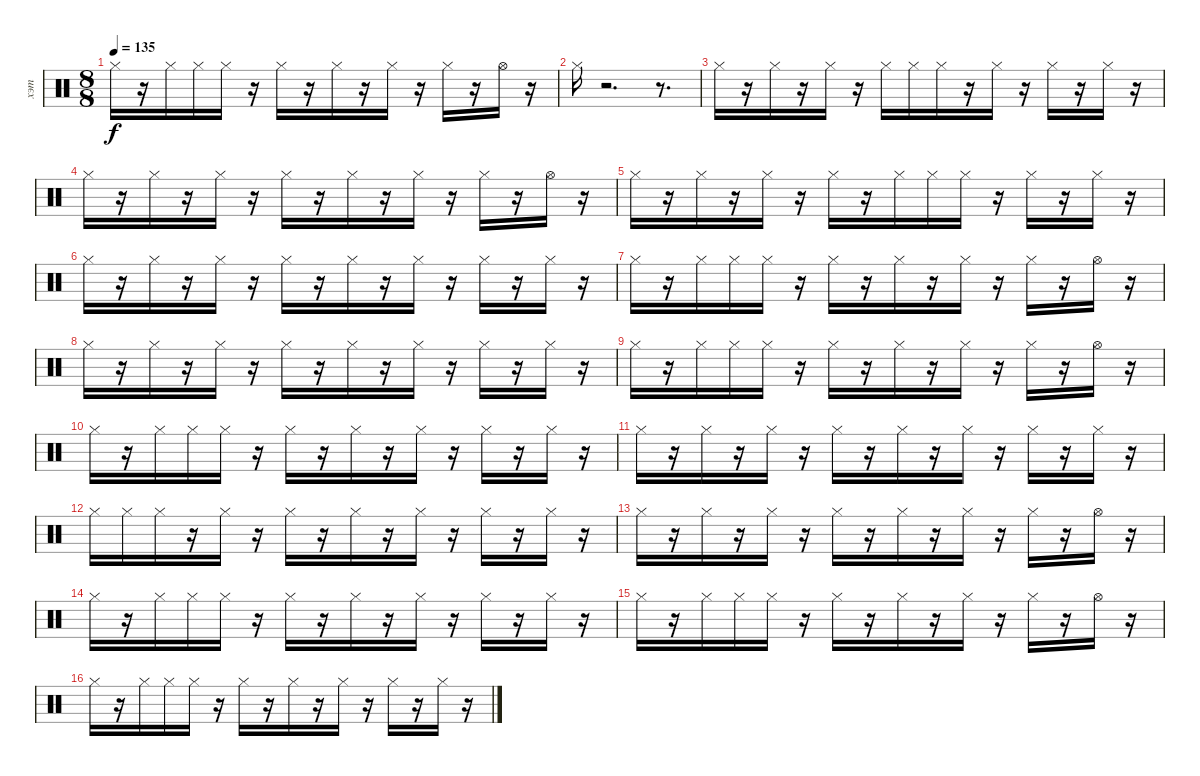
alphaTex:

\track ("хэт" "хэт") {instrument percussion}
\staff {score}
\articulation defaults
\ts (8 8)
\tempo 135
\clef neutral
\ks c "Hi-Hat (closed)".16{dy f}
r.16 "Hi-Hat (closed)".16 "Hi-Hat (closed)".16 "Hi-Hat (closed)".16 r.16 "Hi-Hat (closed)".16 r.16 "Hi-Hat (closed)".16 r.16 "Hi-Hat (closed)".16 r.16 "Hi-Hat (closed)".16 r.16 "Hi-Hat (open)".16 r.16 |
"Hi-Hat (closed)".16 r.2{d} r.8{d} |
"Hi-Hat (closed)".16 r.16 "Hi-Hat (closed)".16 r.16 "Hi-Hat (closed)".16 r.16 "Hi-Hat (closed)".16 "Hi-Hat (closed)".16 "Hi-Hat (closed)".16 r.16 "Hi-Hat (closed)".16 r.16 "Hi-Hat (closed)".16 r.16 "Hi-Hat (closed)".16 r.16 |
"Hi-Hat (closed)".16 r.16 "Hi-Hat (closed)".16 r.16 "Hi-Hat (closed)".16 r.16 "Hi-Hat (closed)".16 r.16 "Hi-Hat (closed)".16 r.16 "Hi-Hat (closed)".16 r.16 "Hi-Hat (closed)".16 r.16 "Hi-Hat (open)".16 r.16 |
"Hi-Hat (closed)".16 r.16 "Hi-Hat (closed)".16 r.16 "Hi-Hat (closed)".16 r.16 "Hi-Hat (closed)".16 r.16 "Hi-Hat (closed)".16 "Hi-Hat (closed)".16 "Hi-Hat (closed)".16 r.16 "Hi-Hat (closed)".16 r.16 "Hi-Hat (closed)".16 r.16 |
"Hi-Hat (closed)".16 r.16 "Hi-Hat (closed)".16 r.16 "Hi-Hat (closed)".16 r.16 "Hi-Hat (closed)".16 r.16 "Hi-Hat (closed)".16 r.16 "Hi-Hat (closed)".16 r.16 "Hi-Hat (closed)".16 r.16 "Hi-Hat (closed)".16 r.16 |
"Hi-Hat (closed)".16 r.16 "Hi-Hat (closed)".16 "Hi-Hat (closed)".16 "Hi-Hat (closed)".16 r.16 "Hi-Hat (closed)".16 r.16 "Hi-Hat (closed)".16 r.16 "Hi-Hat (closed)".16 r.16 "Hi-Hat (closed)".16 r.16 "Hi-Hat (open)".16 r.16 |
"Hi-Hat (closed)".16 r.16 "Hi-Hat (closed)".16 r.16 "Hi-Hat (closed)".16 r.16 "Hi-Hat (closed)".16 r.16 "Hi-Hat (closed)".16 r.16 "Hi-Hat (closed)".16 r.16 "Hi-Hat (closed)".16 r.16 "Hi-Hat (closed)".16 r.16 |
"Hi-Hat (closed)".16 r.16 "Hi-Hat (closed)".16 "Hi-Hat (closed)".16 "Hi-Hat (closed)".16 r.16 "Hi-Hat (closed)".16 r.16 "Hi-Hat (closed)".16 r.16 "Hi-Hat (closed)".16 r.16 "Hi-Hat (closed)".16 r.16 "Hi-Hat (open)".16 r.16 |
"Hi-Hat (closed)".16 r.16 "Hi-Hat (closed)".16 "Hi-Hat (closed)".16 "Hi-Hat (closed)".16 r.16 "Hi-Hat (closed)".16 r.16 "Hi-Hat (closed)".16 r.16 "Hi-Hat (closed)".16 r.16 "Hi-Hat (closed)".16 r.16 "Hi-Hat (closed)".16 r.16 |
"Hi-Hat (closed)".16 r.16 "Hi-Hat (closed)".16 r.16 "Hi-Hat (closed)".16 r.16 "Hi-Hat (closed)".16 r.16 "Hi-Hat (closed)".16 r.16 "Hi-Hat (closed)".16 r.16 "Hi-Hat (closed)".16 r.16 "Hi-Hat (closed)".16 r.16 |
"Hi-Hat (closed)".16 "Hi-Hat (closed)".16 "Hi-Hat (closed)".16 r.16 "Hi-Hat (closed)".16 r.16 "Hi-Hat (closed)".16 r.16 "Hi-Hat (closed)".16 r.16 "Hi-Hat (closed)".16 r.16 "Hi-Hat (closed)".16 r.16 "Hi-Hat (closed)".16 r.16 |
"Hi-Hat (closed)".16 r.16 "Hi-Hat (closed)".16 r.16 "Hi-Hat (closed)".16 r.16 "Hi-Hat (closed)".16 r.16 "Hi-Hat (closed)".16 r.16 "Hi-Hat (closed)".16 r.16 "Hi-Hat (closed)".16 r.16 "Hi-Hat (open)".16 r.16 |
"Hi-Hat (closed)".16 r.16 "Hi-Hat (closed)".16 "Hi-Hat (closed)".16 "Hi-Hat (closed)".16 r.16 "Hi-Hat (closed)".16 r.16 "Hi-Hat (closed)".16 r.16 "Hi-Hat (closed)".16 r.16 "Hi-Hat (closed)".16 r.16 "Hi-Hat (closed)".16 r.16 |
"Hi-Hat (closed)".16 r.16 "Hi-Hat (closed)".16 "Hi-Hat (closed)".16 "Hi-Hat (closed)".16 r.16 "Hi-Hat (closed)".16 r.16 "Hi-Hat (closed)".16 r.16 "Hi-Hat (closed)".16 r.16 "Hi-Hat (closed)".16 r.16 "Hi-Hat (open)".16 r.16 |
"Hi-Hat (closed)".16 r.16 "Hi-Hat (closed)".16 "Hi-Hat (closed)".16 "Hi-Hat (closed)".16 r.16 "Hi-Hat (closed)".16 r.16 "Hi-Hat (closed)".16 r.16 "Hi-Hat (closed)".16 r.16 "Hi-Hat (closed)".16 r.16 "Hi-Hat (closed)".16 r.16
